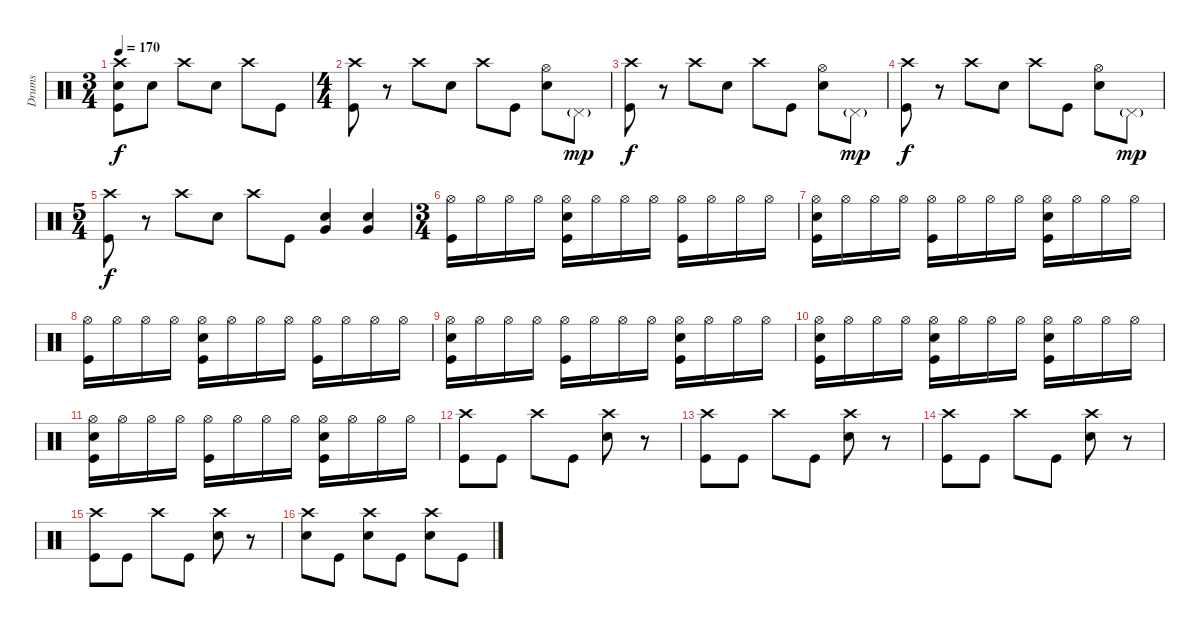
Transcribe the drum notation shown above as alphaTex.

\track ("Drums" "Drums") {instrument percussion}
\staff {score}
\articulation defaults
\ts (3 4)
\tempo 170
\clef neutral
\ks c
("Kick (hit)" "Snare (hit) 2" "Crash high (hit)").8{dy f} "Snare (hit) 2".8 "Crash high (hit)".8 "Snare (hit) 2".8 "Crash high (hit)".8 "Kick (hit)".8 |
\ts (4 4)
("Kick (hit)" "Crash high (hit)").8 r.8 "Crash high (hit)".8 "Snare (hit) 2".8 "Crash high (hit)".8 "Kick (hit)".8 ("Snare (hit) 2" "Hi-Hat (open)").8 "Pedal Hi-Hat (hit)"{g}.8{dy mp} |
("Kick (hit)" "Crash high (hit)").8{dy f} r.8 "Crash high (hit)".8 "Snare (hit) 2".8 "Crash high (hit)".8 "Kick (hit)".8 ("Snare (hit) 2" "Hi-Hat (open)").8 "Pedal Hi-Hat (hit)"{g}.8{dy mp} |
("Kick (hit)" "Crash high (hit)").8{dy f} r.8 "Crash high (hit)".8 "Snare (hit) 2".8 "Crash high (hit)".8 "Kick (hit)".8 ("Snare (hit) 2" "Hi-Hat (open)").8 "Pedal Hi-Hat (hit)"{g}.8{dy mp} |
\ts (5 4)
("Kick (hit)" "Crash high (hit)").8{dy f} r.8 "Crash high (hit)".8 "Snare (hit) 2".8 "Crash high (hit)".8 "Kick (hit)".8 ("Snare (hit) 2" "Very Low Tom (hit)").4 ("Snare (hit) 2" "Very Low Tom (hit)").4 |
\ts (3 4)
("Kick (hit)" "Hi-Hat (open)").16 "Hi-Hat (open)".16 "Hi-Hat (open)".16 "Hi-Hat (open)".16 ("Kick (hit)" "Snare (hit) 2" "Hi-Hat (open)").16 "Hi-Hat (open)".16 "Hi-Hat (open)".16 "Hi-Hat (open)".16 ("Kick (hit)" "Hi-Hat (open)").16 "Hi-Hat (open)".16 "Hi-Hat (open)".16 "Hi-Hat (open)".16 |
("Kick (hit)" "Snare (hit) 2" "Hi-Hat (open)").16 "Hi-Hat (open)".16 "Hi-Hat (open)".16 "Hi-Hat (open)".16 ("Kick (hit)" "Hi-Hat (open)").16 "Hi-Hat (open)".16 "Hi-Hat (open)".16 "Hi-Hat (open)".16 ("Kick (hit)" "Snare (hit) 2" "Hi-Hat (open)").16 "Hi-Hat (open)".16 "Hi-Hat (open)".16 "Hi-Hat (open)".16 |
("Kick (hit)" "Hi-Hat (open)").16 "Hi-Hat (open)".16 "Hi-Hat (open)".16 "Hi-Hat (open)".16 ("Kick (hit)" "Snare (hit) 2" "Hi-Hat (open)").16 "Hi-Hat (open)".16 "Hi-Hat (open)".16 "Hi-Hat (open)".16 ("Kick (hit)" "Hi-Hat (open)").16 "Hi-Hat (open)".16 "Hi-Hat (open)".16 "Hi-Hat (open)".16 |
("Kick (hit)" "Snare (hit) 2" "Hi-Hat (open)").16 "Hi-Hat (open)".16 "Hi-Hat (open)".16 "Hi-Hat (open)".16 ("Kick (hit)" "Hi-Hat (open)").16 "Hi-Hat (open)".16 "Hi-Hat (open)".16 "Hi-Hat (open)".16 ("Kick (hit)" "Snare (hit) 2" "Hi-Hat (open)").16 "Hi-Hat (open)".16 "Hi-Hat (open)".16 "Hi-Hat (open)".16 |
("Kick (hit)" "Snare (hit) 2" "Hi-Hat (open)").16 "Hi-Hat (open)".16 "Hi-Hat (open)".16 "Hi-Hat (open)".16 ("Kick (hit)" "Snare (hit) 2" "Hi-Hat (open)").16 "Hi-Hat (open)".16 "Hi-Hat (open)".16 "Hi-Hat (open)".16 ("Kick (hit)" "Snare (hit) 2" "Hi-Hat (open)").16 "Hi-Hat (open)".16 "Hi-Hat (open)".16 "Hi-Hat (open)".16 |
("Kick (hit)" "Snare (hit) 2" "Hi-Hat (open)").16 "Hi-Hat (open)".16 "Hi-Hat (open)".16 "Hi-Hat (open)".16 ("Kick (hit)" "Hi-Hat (open)").16 "Hi-Hat (open)".16 "Hi-Hat (open)".16 "Hi-Hat (open)".16 ("Kick (hit)" "Snare (hit) 2" "Hi-Hat (open)").16 "Hi-Hat (open)".16 "Hi-Hat (open)".16 "Hi-Hat (open)".16 |
("Kick (hit)" "Crash high (hit)").8 "Kick (hit)".8 "Crash high (hit)".8 "Kick (hit)".8 ("Snare (hit) 2" "Crash high (hit)").8 r.8 |
("Kick (hit)" "Crash high (hit)").8 "Kick (hit)".8 "Crash high (hit)".8 "Kick (hit)".8 ("Snare (hit) 2" "Crash high (hit)").8 r.8 |
("Kick (hit)" "Crash high (hit)").8 "Kick (hit)".8 "Crash high (hit)".8 "Kick (hit)".8 ("Snare (hit) 2" "Crash high (hit)").8 r.8 |
("Kick (hit)" "Crash high (hit)").8 "Kick (hit)".8 "Crash high (hit)".8 "Kick (hit)".8 ("Snare (hit) 2" "Crash high (hit)").8 r.8 |
("Snare (hit) 2" "Crash high (hit)").8 "Kick (hit)".8 ("Snare (hit) 2" "Crash high (hit)").8 "Kick (hit)".8 ("Snare (hit) 2" "Crash high (hit)").8 "Kick (hit)".8
